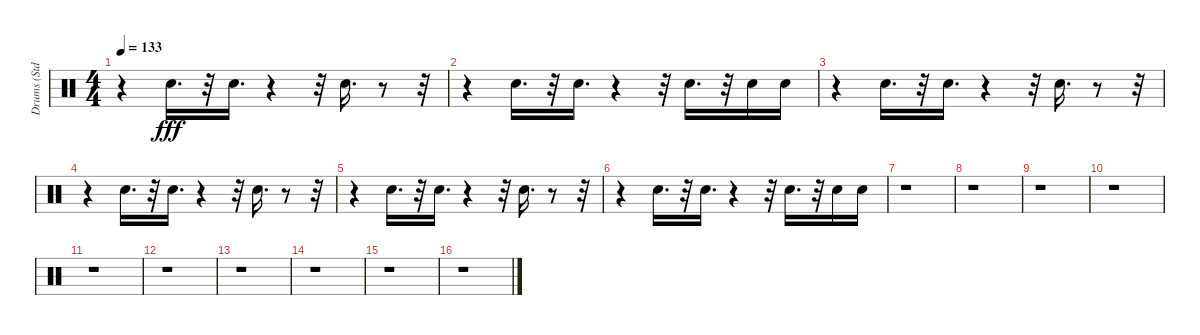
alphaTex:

\track ("Drums (Std.)" "Drums (Std") {instrument percussion}
\staff {score}
\articulation defaults
\ts (4 4)
\tempo 133
\clef neutral
\ks c
r.4{dy fff} "Snare (hit) 2".16{d} r.32 "Snare (hit) 2".16{d} r.4 r.32 "Snare (hit) 2".16{d} r.8 r.32 |
r.4 "Snare (hit) 2".16{d} r.32 "Snare (hit) 2".16{d} r.4 r.32 "Snare (hit) 2".16{d} r.32 "Snare (hit) 2".16 "Snare (hit) 2".16 |
r.4 "Snare (hit) 2".16{d} r.32 "Snare (hit) 2".16{d} r.4 r.32 "Snare (hit) 2".16{d} r.8 r.32 |
r.4 "Snare (hit) 2".16{d} r.32 "Snare (hit) 2".16{d} r.4 r.32 "Snare (hit) 2".16{d} r.8 r.32 |
r.4 "Snare (hit) 2".16{d} r.32 "Snare (hit) 2".16{d} r.4 r.32 "Snare (hit) 2".16{d} r.8 r.32 |
r.4 "Snare (hit) 2".16{d} r.32 "Snare (hit) 2".16{d} r.4 r.32 "Snare (hit) 2".16{d} r.32 "Snare (hit) 2".16 "Snare (hit) 2".16 |
r.1 |
r.1 |
r.1 |
r.1 |
r.1 |
r.1 |
r.1 |
r.1 |
r.1 |
r.1
